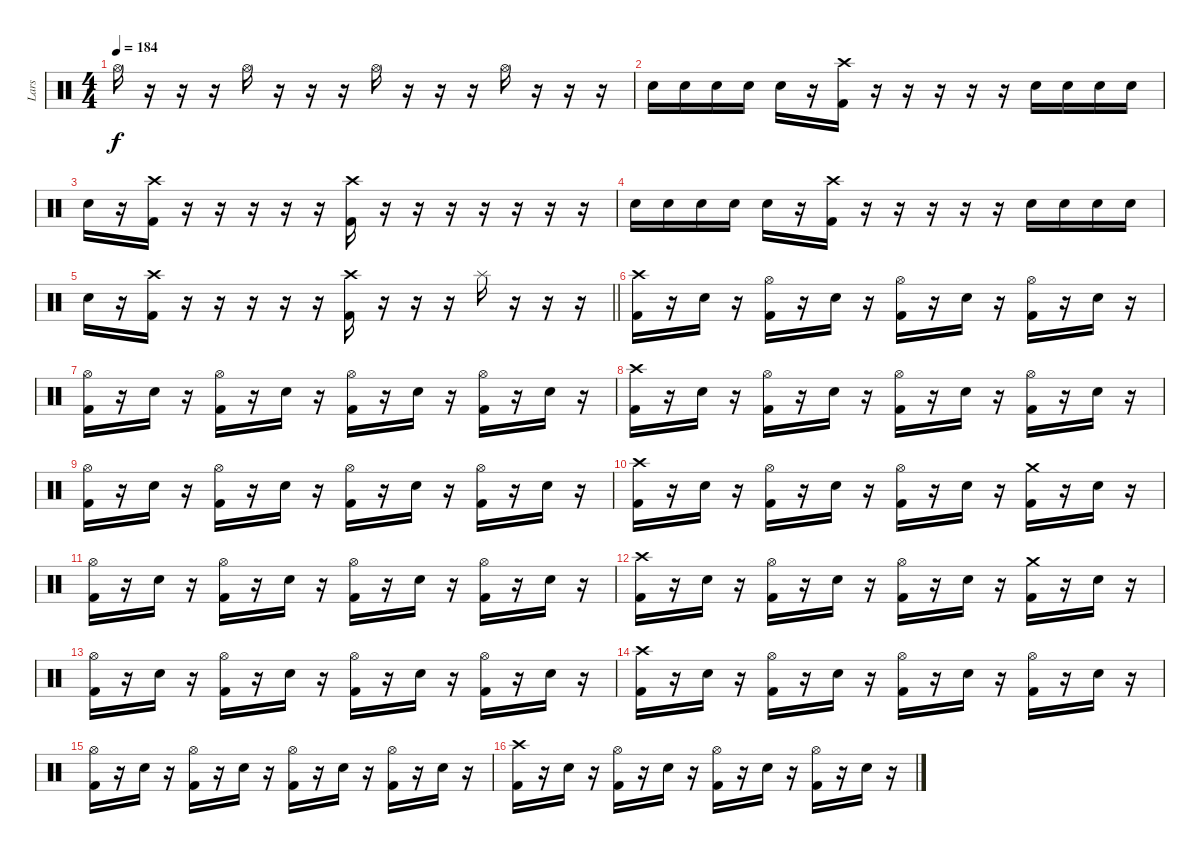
\track ("Lars" "Lars") {instrument percussion}
\staff {score}
\articulation defaults
\ts (4 4)
\tempo 184
\clef neutral
\ks c "Hi-Hat (open)".16{dy f}
r.16 r.16 r.16 "Hi-Hat (open)".16 r.16 r.16 r.16 "Hi-Hat (open)".16 r.16 r.16 r.16 "Hi-Hat (open)".16 r.16 r.16 r.16 |
"Electric Snare (hit)".16 "Electric Snare (hit)".16 "Electric Snare (hit)".16 "Electric Snare (hit)".16 "Electric Snare (hit)".16 r.16 ("Crash high (hit)" "Kick (hit) 2").16 r.16 r.16 r.16 r.16 r.16 "Electric Snare (hit)".16 "Electric Snare (hit)".16 "Electric Snare (hit)".16 "Electric Snare (hit)".16 |
"Electric Snare (hit)".16 r.16 ("Crash high (hit)" "Kick (hit) 2").16 r.16 r.16 r.16 r.16 r.16 ("Crash high (hit)" "Kick (hit) 2").16 r.16 r.16 r.16{volume 0} r.16 r.16 r.16 r.16 |
"Electric Snare (hit)".16{volume 10} "Electric Snare (hit)".16 "Electric Snare (hit)".16 "Electric Snare (hit)".16 "Electric Snare (hit)".16 r.16 ("Crash high (hit)" "Kick (hit) 2").16 r.16 r.16 r.16 r.16 r.16 "Electric Snare (hit)".16 "Electric Snare (hit)".16 "Electric Snare (hit)".16 "Electric Snare (hit)".16 |
\barLineRight lightlight "Electric Snare (hit)".16
r.16 ("Crash high (hit)" "Kick (hit) 2").16 r.16 r.16 r.16 r.16 r.16 ("Crash high (hit)" "Kick (hit) 2").16 r.16 r.16 r.16{volume 0} "Splash (hit)".16{volume 10} r.16 r.16 r.16 |
("Crash high (hit)" "Kick (hit) 2").16 r.16 "Electric Snare (hit)".16 r.16 ("Hi-Hat (open)" "Kick (hit) 2").16 r.16 "Electric Snare (hit)".16 r.16 ("Hi-Hat (open)" "Kick (hit) 2").16 r.16 "Electric Snare (hit)".16 r.16 ("Hi-Hat (open)" "Kick (hit) 2").16 r.16 "Electric Snare (hit)".16 r.16 |
("Hi-Hat (open)" "Kick (hit) 2").16 r.16 "Electric Snare (hit)".16 r.16 ("Hi-Hat (open)" "Kick (hit) 2").16 r.16 "Electric Snare (hit)".16 r.16 ("Hi-Hat (open)" "Kick (hit) 2").16 r.16 "Electric Snare (hit)".16 r.16 ("Hi-Hat (open)" "Kick (hit) 2").16 r.16 "Electric Snare (hit)".16 r.16 |
("Crash high (hit)" "Kick (hit) 2").16 r.16 "Electric Snare (hit)".16 r.16 ("Hi-Hat (open)" "Kick (hit) 2").16 r.16 "Electric Snare (hit)".16 r.16 ("Hi-Hat (open)" "Kick (hit) 2").16 r.16 "Electric Snare (hit)".16 r.16 ("Hi-Hat (open)" "Kick (hit) 2").16 r.16 "Electric Snare (hit)".16 r.16 |
("Hi-Hat (open)" "Kick (hit) 2").16 r.16 "Electric Snare (hit)".16 r.16 ("Hi-Hat (open)" "Kick (hit) 2").16 r.16 "Electric Snare (hit)".16 r.16 ("Hi-Hat (open)" "Kick (hit) 2").16 r.16 "Electric Snare (hit)".16 r.16 ("Hi-Hat (open)" "Kick (hit) 2").16 r.16 "Electric Snare (hit)".16 r.16 |
("Crash high (hit)" "Kick (hit) 2").16 r.16 "Electric Snare (hit)".16 r.16 ("Hi-Hat (open)" "Kick (hit) 2").16 r.16 "Electric Snare (hit)".16 r.16 ("Hi-Hat (open)" "Kick (hit) 2").16 r.16 "Electric Snare (hit)".16 r.16 ("Crash medium (hit)" "Kick (hit) 2").16 r.16 "Electric Snare (hit)".16 r.16 |
("Hi-Hat (open)" "Kick (hit) 2").16 r.16 "Electric Snare (hit)".16 r.16 ("Hi-Hat (open)" "Kick (hit) 2").16 r.16 "Electric Snare (hit)".16 r.16 ("Hi-Hat (open)" "Kick (hit) 2").16 r.16 "Electric Snare (hit)".16 r.16 ("Hi-Hat (open)" "Kick (hit) 2").16 r.16 "Electric Snare (hit)".16 r.16 |
("Crash high (hit)" "Kick (hit) 2").16 r.16 "Electric Snare (hit)".16 r.16 ("Hi-Hat (open)" "Kick (hit) 2").16 r.16 "Electric Snare (hit)".16 r.16 ("Hi-Hat (open)" "Kick (hit) 2").16 r.16 "Electric Snare (hit)".16 r.16 ("Crash medium (hit)" "Kick (hit) 2").16 r.16 "Electric Snare (hit)".16 r.16 |
("Hi-Hat (open)" "Kick (hit) 2").16 r.16 "Electric Snare (hit)".16 r.16 ("Hi-Hat (open)" "Kick (hit) 2").16 r.16 "Electric Snare (hit)".16 r.16 ("Hi-Hat (open)" "Kick (hit) 2").16 r.16 "Electric Snare (hit)".16 r.16 ("Hi-Hat (open)" "Kick (hit) 2").16 r.16 "Electric Snare (hit)".16 r.16 |
("Crash high (hit)" "Kick (hit) 2").16 r.16 "Electric Snare (hit)".16 r.16 ("Hi-Hat (open)" "Kick (hit) 2").16 r.16 "Electric Snare (hit)".16 r.16 ("Hi-Hat (open)" "Kick (hit) 2").16 r.16 "Electric Snare (hit)".16 r.16 ("Hi-Hat (open)" "Kick (hit) 2").16 r.16 "Electric Snare (hit)".16 r.16 |
("Hi-Hat (open)" "Kick (hit) 2").16 r.16 "Electric Snare (hit)".16 r.16 ("Hi-Hat (open)" "Kick (hit) 2").16 r.16 "Electric Snare (hit)".16 r.16 ("Hi-Hat (open)" "Kick (hit) 2").16 r.16 "Electric Snare (hit)".16 r.16 ("Hi-Hat (open)" "Kick (hit) 2").16 r.16 "Electric Snare (hit)".16 r.16 |
("Crash high (hit)" "Kick (hit) 2").16 r.16 "Electric Snare (hit)".16 r.16 ("Hi-Hat (open)" "Kick (hit) 2").16 r.16 "Electric Snare (hit)".16 r.16 ("Hi-Hat (open)" "Kick (hit) 2").16 r.16 "Electric Snare (hit)".16 r.16 ("Hi-Hat (open)" "Kick (hit) 2").16 r.16 "Electric Snare (hit)".16 r.16
